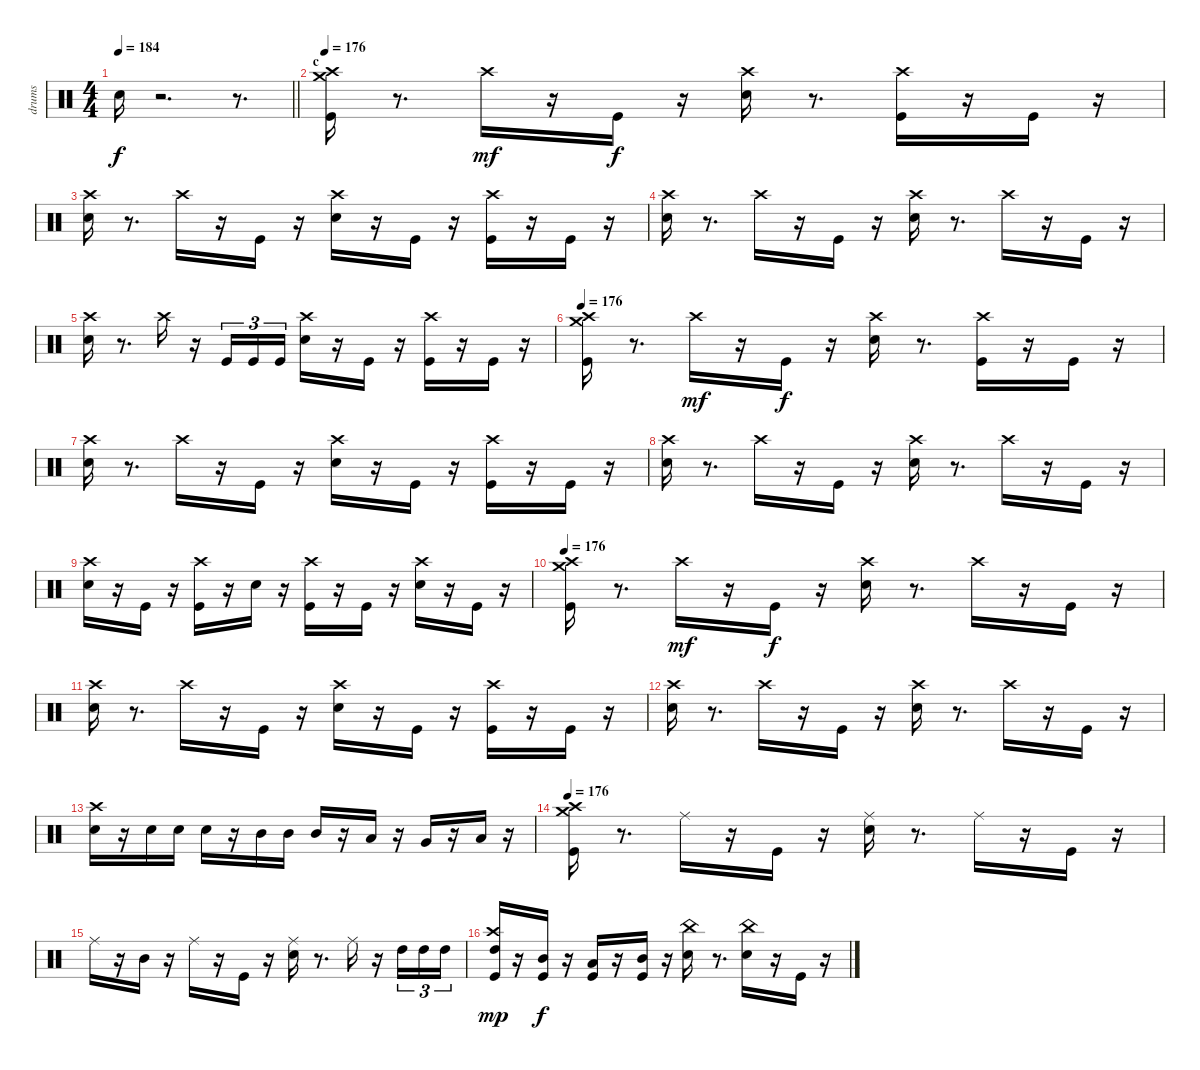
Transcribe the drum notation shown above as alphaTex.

\track ("drums" "drums") {instrument percussion}
\staff {score}
\articulation defaults
\ts (4 4)
\tempo 184
\clef neutral
\barLineRight lightlight
\ks c "Snare (hit) 2".16{dy f}
r.2{d} r.8{d} |
\section ("" "c")
\tempo 176
("Kick (hit)" "Crash high (hit)" "Crash medium (hit)").16 r.8{d} "Crash high (hit)".16{dy mf} r.16 "Kick (hit)".16{dy f} r.16 ("Snare (hit) 2" "Crash high (hit)").16 r.8{d} ("Kick (hit)" "Crash high (hit)").16 r.16 "Kick (hit)".16 r.16 |
("Snare (hit) 2" "Crash high (hit)").16 r.8{d} "Crash high (hit)".16 r.16 "Kick (hit)".16 r.16 ("Snare (hit) 2" "Crash high (hit)").16 r.16 "Kick (hit)".16 r.16 ("Kick (hit)" "Crash high (hit)").16 r.16 "Kick (hit)".16 r.16 |
("Snare (hit) 2" "Crash high (hit)").16 r.8{d} "Crash high (hit)".16 r.16 "Kick (hit)".16 r.16 ("Snare (hit) 2" "Crash high (hit)").16 r.8{d} "Crash high (hit)".16 r.16 "Kick (hit)".16 r.16 |
("Snare (hit) 2" "Crash high (hit)").16 r.8{d} "Crash high (hit)".16 r.16 "Kick (hit)".16{tu (3 2)} "Kick (hit)".16{tu (3 2)} "Kick (hit)".16{tu (3 2)} ("Snare (hit) 2" "Crash high (hit)").16 r.16 "Kick (hit)".16 r.16 ("Kick (hit)" "Crash high (hit)").16 r.16 "Kick (hit)".16 r.16 |
\tempo 176
("Kick (hit)" "Crash high (hit)" "Crash medium (hit)").16 r.8{d} "Crash high (hit)".16{dy mf} r.16 "Kick (hit)".16{dy f} r.16 ("Snare (hit) 2" "Crash high (hit)").16 r.8{d} ("Kick (hit)" "Crash high (hit)").16 r.16 "Kick (hit)".16 r.16 |
("Snare (hit) 2" "Crash high (hit)").16 r.8{d} "Crash high (hit)".16 r.16 "Kick (hit)".16 r.16 ("Snare (hit) 2" "Crash high (hit)").16 r.16 "Kick (hit)".16 r.16 ("Kick (hit)" "Crash high (hit)").16 r.16 "Kick (hit)".16 r.16 |
("Snare (hit) 2" "Crash high (hit)").16 r.8{d} "Crash high (hit)".16 r.16 "Kick (hit)".16 r.16 ("Snare (hit) 2" "Crash high (hit)").16 r.8{d} "Crash high (hit)".16 r.16 "Kick (hit)".16 r.16 |
("Snare (hit) 2" "Crash high (hit)").16 r.16 "Kick (hit)".16 r.16 ("Kick (hit)" "Crash high (hit)").16 r.16 "Snare (hit) 2".16 r.16 ("Kick (hit)" "Crash high (hit)").16 r.16 "Kick (hit)".16 r.16 ("Snare (hit) 2" "Crash high (hit)").16 r.16 "Kick (hit)".16 r.16 |
\tempo 176
("Kick (hit)" "Crash high (hit)" "Crash medium (hit)").16 r.8{d} "Crash high (hit)".16{dy mf} r.16 "Kick (hit)".16{dy f} r.16 ("Snare (hit) 2" "Crash high (hit)").16 r.8{d} "Crash high (hit)".16 r.16 "Kick (hit)".16 r.16 |
("Snare (hit) 2" "Crash high (hit)").16 r.8{d} "Crash high (hit)".16 r.16 "Kick (hit)".16 r.16 ("Snare (hit) 2" "Crash high (hit)").16 r.16 "Kick (hit)".16 r.16 ("Kick (hit)" "Crash high (hit)").16 r.16 "Kick (hit)".16 r.16 |
("Snare (hit) 2" "Crash high (hit)").16 r.8{d} "Crash high (hit)".16 r.16 "Kick (hit)".16 r.16 ("Snare (hit) 2" "Crash high (hit)").16 r.8{d} "Crash high (hit)".16 r.16 "Kick (hit)".16 r.16 |
("Snare (hit) 2" "Crash high (hit)").16 r.16 "Snare (hit) 2".16 "Snare (hit) 2".16 "Snare (hit) 2".16 r.16 "Mid Tom (hit)".16 "Mid Tom (hit)".16 "Mid Tom (hit)".16 r.16 "Low Tom (hit)".16 r.16 "Very Low Tom (hit)".16 r.16 "Low Floor Tom (hit)".16 r.16 |
\tempo 176
("Kick (hit)" "Crash high (hit)" "Crash medium (hit)").16 r.8{d} "Ride (middle)".16 r.16 "Kick (hit)".16 r.16 ("Snare (hit) 2" "Ride (middle)").16 r.8{d} "Ride (middle)".16 r.16 "Kick (hit)".16 r.16 |
"Ride (middle)".16 r.16 "Mid Tom (hit)".16 r.16 "Ride (middle)".16 r.16 "Kick (hit)".16 r.16 ("Snare (hit) 2" "Ride (middle)").16 r.8{d} "Ride (middle)".16 r.16 "High Tom (hit)".16{tu (3 2)} "High Tom (hit)".16{tu (3 2)} "High Tom (hit)".16{tu (3 2)} |
("Kick (hit)" "High Tom (hit)" "Crash high (hit)").16{dy mp} r.16 ("Kick (hit)" "Mid Tom (hit)").16{dy f} r.16 ("Kick (hit)" "Low Tom (hit)").16 r.16 ("Kick (hit)" "Mid Tom (hit)").16 r.16 ("Snare (hit) 2" "China (hit)").16 r.8{d} ("Snare (hit) 2" "China (hit)").16 r.16 "Kick (hit)".16 r.16
